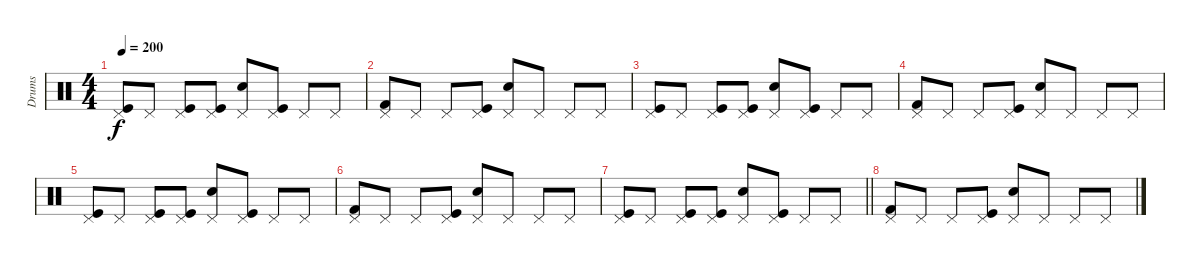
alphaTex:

\track ("Drums" "Drums") {instrument percussion}
\staff {score}
\articulation defaults
\ts (4 4)
\tempo 200
\clef neutral
\ks c
("Kick (hit)" "Pedal Hi-Hat (hit)").8{dy f} "Pedal Hi-Hat (hit)".8 ("Kick (hit)" "Pedal Hi-Hat (hit)").8 ("Kick (hit)" "Pedal Hi-Hat (hit)").8 ("Snare (hit) 2" "Pedal Hi-Hat (hit)").8 ("Kick (hit)" "Pedal Hi-Hat (hit)").8 "Pedal Hi-Hat (hit)".8 "Pedal Hi-Hat (hit)".8 |
("Kick (hit) 2" "Pedal Hi-Hat (hit)").8 "Pedal Hi-Hat (hit)".8 "Pedal Hi-Hat (hit)".8 ("Kick (hit)" "Pedal Hi-Hat (hit)").8 ("Snare (hit) 2" "Pedal Hi-Hat (hit)").8 "Pedal Hi-Hat (hit)".8 "Pedal Hi-Hat (hit)".8 "Pedal Hi-Hat (hit)".8 |
("Kick (hit)" "Pedal Hi-Hat (hit)").8 "Pedal Hi-Hat (hit)".8 ("Kick (hit)" "Pedal Hi-Hat (hit)").8 ("Kick (hit)" "Pedal Hi-Hat (hit)").8 ("Snare (hit) 2" "Pedal Hi-Hat (hit)").8 ("Kick (hit)" "Pedal Hi-Hat (hit)").8 "Pedal Hi-Hat (hit)".8 "Pedal Hi-Hat (hit)".8 |
("Kick (hit) 2" "Pedal Hi-Hat (hit)").8 "Pedal Hi-Hat (hit)".8 "Pedal Hi-Hat (hit)".8 ("Kick (hit)" "Pedal Hi-Hat (hit)").8 ("Snare (hit) 2" "Pedal Hi-Hat (hit)").8 "Pedal Hi-Hat (hit)".8 "Pedal Hi-Hat (hit)".8 "Pedal Hi-Hat (hit)".8 |
("Kick (hit)" "Pedal Hi-Hat (hit)").8 "Pedal Hi-Hat (hit)".8 ("Kick (hit)" "Pedal Hi-Hat (hit)").8 ("Kick (hit)" "Pedal Hi-Hat (hit)").8 ("Snare (hit) 2" "Pedal Hi-Hat (hit)").8 ("Kick (hit)" "Pedal Hi-Hat (hit)").8 "Pedal Hi-Hat (hit)".8 "Pedal Hi-Hat (hit)".8 |
("Kick (hit) 2" "Pedal Hi-Hat (hit)").8 "Pedal Hi-Hat (hit)".8 "Pedal Hi-Hat (hit)".8 ("Kick (hit)" "Pedal Hi-Hat (hit)").8 ("Snare (hit) 2" "Pedal Hi-Hat (hit)").8 "Pedal Hi-Hat (hit)".8 "Pedal Hi-Hat (hit)".8 "Pedal Hi-Hat (hit)".8 |
\barLineRight lightlight
("Kick (hit)" "Pedal Hi-Hat (hit)").8 "Pedal Hi-Hat (hit)".8 ("Kick (hit)" "Pedal Hi-Hat (hit)").8 ("Kick (hit)" "Pedal Hi-Hat (hit)").8 ("Snare (hit) 2" "Pedal Hi-Hat (hit)").8 ("Kick (hit)" "Pedal Hi-Hat (hit)").8 "Pedal Hi-Hat (hit)".8 "Pedal Hi-Hat (hit)".8 |
("Kick (hit) 2" "Pedal Hi-Hat (hit)").8 "Pedal Hi-Hat (hit)".8 "Pedal Hi-Hat (hit)".8 ("Kick (hit)" "Pedal Hi-Hat (hit)").8 ("Snare (hit) 2" "Pedal Hi-Hat (hit)").8 "Pedal Hi-Hat (hit)".8 "Pedal Hi-Hat (hit)".8 "Pedal Hi-Hat (hit)".8
